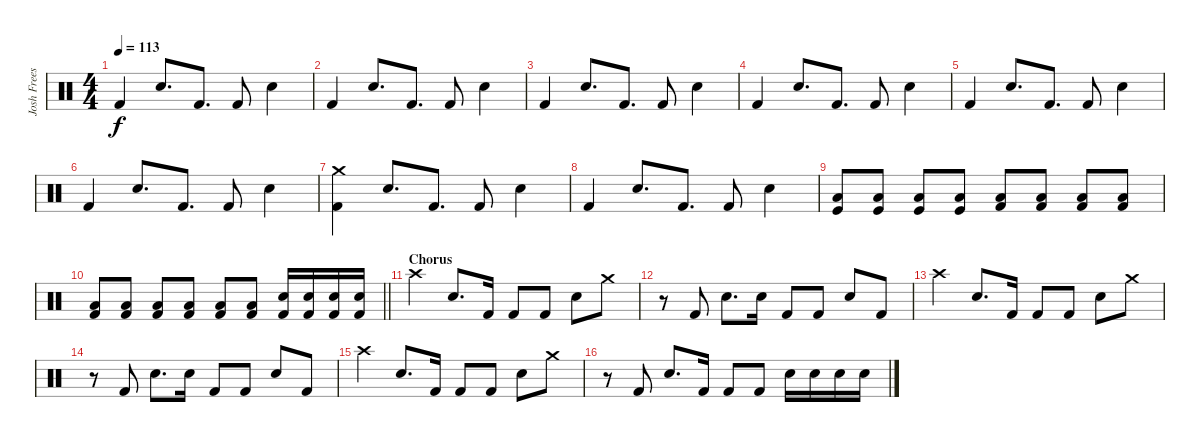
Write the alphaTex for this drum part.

\track ("Josh Freese (Studio Drummer)" "Josh Frees") {instrument percussion}
\staff {score}
\articulation defaults
\ts (4 4)
\tempo 113
\clef neutral
\ks c "Kick (hit) 2".4{dy f} "Electric Snare (hit)".8{d} "Kick (hit) 2".8{d} "Kick (hit) 2".8 "Electric Snare (hit)".4
|
"Kick (hit) 2".4 "Electric Snare (hit)".8{d} "Kick (hit) 2".8{d} "Kick (hit) 2".8 "Electric Snare (hit)".4 |
"Kick (hit) 2".4 "Electric Snare (hit)".8{d} "Kick (hit) 2".8{d} "Kick (hit) 2".8 "Electric Snare (hit)".4 |
"Kick (hit) 2".4 "Electric Snare (hit)".8{d} "Kick (hit) 2".8{d} "Kick (hit) 2".8 "Electric Snare (hit)".4 |
"Kick (hit) 2".4 "Electric Snare (hit)".8{d} "Kick (hit) 2".8{d} "Kick (hit) 2".8 "Electric Snare (hit)".4 |
"Kick (hit) 2".4 "Electric Snare (hit)".8{d} "Kick (hit) 2".8{d} "Kick (hit) 2".8 "Electric Snare (hit)".4 |
("Crash medium (hit)" "Kick (hit) 2").4 "Electric Snare (hit)".8{d} "Kick (hit) 2".8{d} "Kick (hit) 2".8 "Electric Snare (hit)".4 |
"Kick (hit) 2".4 "Electric Snare (hit)".8{d} "Kick (hit) 2".8{d} "Kick (hit) 2".8 "Electric Snare (hit)".4 |
("Kick (hit)" "Low Floor Tom (hit)").8 ("Kick (hit)" "Low Floor Tom (hit)").8 ("Kick (hit)" "Low Floor Tom (hit)").8 ("Kick (hit)" "Low Floor Tom (hit)").8 ("Kick (hit) 2" "Low Floor Tom (hit)").8 ("Kick (hit) 2" "Low Floor Tom (hit)").8 ("Kick (hit) 2" "Low Floor Tom (hit)").8 ("Kick (hit) 2" "Low Floor Tom (hit)").8 |
\barLineRight lightlight
("Kick (hit) 2" "Low Floor Tom (hit)").8 ("Kick (hit) 2" "Low Floor Tom (hit)").8 ("Kick (hit) 2" "Low Floor Tom (hit)").8 ("Kick (hit) 2" "Low Floor Tom (hit)").8 ("Kick (hit) 2" "Low Floor Tom (hit)").8 ("Kick (hit) 2" "Low Floor Tom (hit)").8 ("Electric Snare (hit)" "Kick (hit) 2").16 ("Electric Snare (hit)" "Kick (hit) 2").16 ("Electric Snare (hit)" "Kick (hit) 2").16 ("Electric Snare (hit)" "Kick (hit) 2").16 |
\section ("" "Chorus")
"Crash high (hit)".4 "Electric Snare (hit)".8{d} "Kick (hit) 2".16 "Kick (hit) 2".8 "Kick (hit) 2".8 "Electric Snare (hit)".8 "Crash medium (hit)".8 |
r.8 "Kick (hit) 2".8 "Electric Snare (hit)".8{d} "Electric Snare (hit)".16 "Kick (hit) 2".8 "Kick (hit) 2".8 "Electric Snare (hit)".8 "Kick (hit) 2".8 |
"Crash high (hit)".4 "Electric Snare (hit)".8{d} "Kick (hit) 2".16 "Kick (hit) 2".8 "Kick (hit) 2".8 "Electric Snare (hit)".8 "Crash medium (hit)".8 |
r.8 "Kick (hit) 2".8 "Electric Snare (hit)".8{d} "Electric Snare (hit)".16 "Kick (hit) 2".8 "Kick (hit) 2".8 "Electric Snare (hit)".8 "Kick (hit) 2".8 |
"Crash high (hit)".4 "Electric Snare (hit)".8{d} "Kick (hit) 2".16 "Kick (hit) 2".8 "Kick (hit) 2".8 "Electric Snare (hit)".8 "Crash medium (hit)".8 |
r.8 "Kick (hit) 2".8 "Electric Snare (hit)".8{d} "Kick (hit) 2".16 "Kick (hit) 2".8 "Kick (hit) 2".8 "Electric Snare (hit)".16 "Electric Snare (hit)".16 "Electric Snare (hit)".16 "Electric Snare (hit)".16
